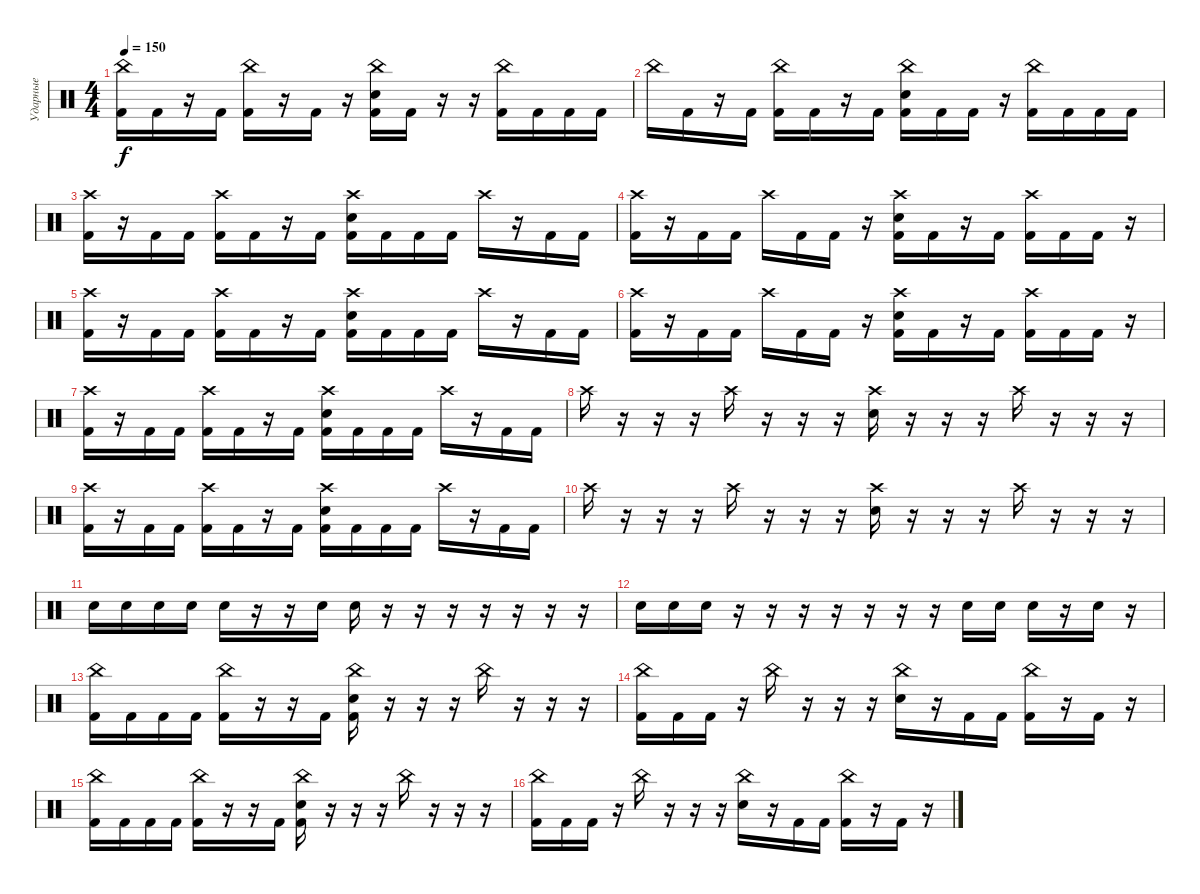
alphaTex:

\track ("Ударные" "Ударные") {instrument percussion}
\staff {score}
\articulation defaults
\ts (4 4)
\tempo 150
\clef neutral
\ks c
("China (hit)" "Kick (hit) 2").16{dy f} "Kick (hit) 2".16 r.16 "Kick (hit) 2".16 ("China (hit)" "Kick (hit) 2").16 r.16 "Kick (hit) 2".16 r.16 ("China (hit)" "Electric Snare (hit)" "Kick (hit) 2").16 "Kick (hit) 2".16 r.16 r.16 ("China (hit)" "Kick (hit) 2").16 "Kick (hit) 2".16 "Kick (hit) 2".16 "Kick (hit) 2".16 |
"China (hit)".16 "Kick (hit) 2".16 r.16 "Kick (hit) 2".16 ("China (hit)" "Kick (hit) 2").16 "Kick (hit) 2".16 r.16 "Kick (hit) 2".16 ("China (hit)" "Electric Snare (hit)" "Kick (hit) 2").16 "Kick (hit) 2".16 "Kick (hit) 2".16 r.16 ("China (hit)" "Kick (hit) 2").16 "Kick (hit) 2".16 "Kick (hit) 2".16 "Kick (hit) 2".16 |
("Crash high (hit)" "Kick (hit) 2").16 r.16 "Kick (hit) 2".16 "Kick (hit) 2".16 ("Crash high (hit)" "Kick (hit) 2").16 "Kick (hit) 2".16 r.16 "Kick (hit) 2".16 ("Crash high (hit)" "Electric Snare (hit)" "Kick (hit) 2").16 "Kick (hit) 2".16 "Kick (hit) 2".16 "Kick (hit) 2".16 "Crash high (hit)".16 r.16 "Kick (hit) 2".16 "Kick (hit) 2".16 |
("Crash high (hit)" "Kick (hit) 2").16 r.16 "Kick (hit) 2".16 "Kick (hit) 2".16 "Crash high (hit)".16 "Kick (hit) 2".16 "Kick (hit) 2".16 r.16 ("Crash high (hit)" "Electric Snare (hit)" "Kick (hit) 2").16 "Kick (hit) 2".16 r.16 "Kick (hit) 2".16 ("Crash high (hit)" "Kick (hit) 2").16 "Kick (hit) 2".16 "Kick (hit) 2".16 r.16 |
("Crash high (hit)" "Kick (hit) 2").16 r.16 "Kick (hit) 2".16 "Kick (hit) 2".16 ("Crash high (hit)" "Kick (hit) 2").16 "Kick (hit) 2".16 r.16 "Kick (hit) 2".16 ("Crash high (hit)" "Electric Snare (hit)" "Kick (hit) 2").16 "Kick (hit) 2".16 "Kick (hit) 2".16 "Kick (hit) 2".16 "Crash high (hit)".16 r.16 "Kick (hit) 2".16 "Kick (hit) 2".16 |
("Crash high (hit)" "Kick (hit) 2").16 r.16 "Kick (hit) 2".16 "Kick (hit) 2".16 "Crash high (hit)".16 "Kick (hit) 2".16 "Kick (hit) 2".16 r.16 ("Crash high (hit)" "Electric Snare (hit)" "Kick (hit) 2").16 "Kick (hit) 2".16 r.16 "Kick (hit) 2".16 ("Crash high (hit)" "Kick (hit) 2").16 "Kick (hit) 2".16 "Kick (hit) 2".16 r.16 |
("Crash high (hit)" "Kick (hit) 2").16 r.16 "Kick (hit) 2".16 "Kick (hit) 2".16 ("Crash high (hit)" "Kick (hit) 2").16 "Kick (hit) 2".16 r.16 "Kick (hit) 2".16 ("Crash high (hit)" "Electric Snare (hit)" "Kick (hit) 2").16 "Kick (hit) 2".16 "Kick (hit) 2".16 "Kick (hit) 2".16 "Crash high (hit)".16 r.16 "Kick (hit) 2".16 "Kick (hit) 2".16 |
"Crash high (hit)".16 r.16 r.16 r.16 "Crash high (hit)".16 r.16 r.16 r.16 ("Crash high (hit)" "Electric Snare (hit)").16 r.16 r.16 r.16 "Crash high (hit)".16 r.16 r.16 r.16 |
("Crash high (hit)" "Kick (hit) 2").16 r.16 "Kick (hit) 2".16 "Kick (hit) 2".16 ("Crash high (hit)" "Kick (hit) 2").16 "Kick (hit) 2".16 r.16 "Kick (hit) 2".16 ("Crash high (hit)" "Electric Snare (hit)" "Kick (hit) 2").16 "Kick (hit) 2".16 "Kick (hit) 2".16 "Kick (hit) 2".16 "Crash high (hit)".16 r.16 "Kick (hit) 2".16 "Kick (hit) 2".16 |
"Crash high (hit)".16 r.16 r.16 r.16 "Crash high (hit)".16 r.16 r.16 r.16 ("Crash high (hit)" "Electric Snare (hit)").16 r.16 r.16 r.16 "Crash high (hit)".16 r.16 r.16 r.16 |
"Electric Snare (hit)".16 "Electric Snare (hit)".16 "Electric Snare (hit)".16 "Electric Snare (hit)".16 "Electric Snare (hit)".16 r.16 r.16 "Electric Snare (hit)".16 "Electric Snare (hit)".16 r.16 r.16 r.16 r.16 r.16 r.16 r.16 |
"Electric Snare (hit)".16 "Electric Snare (hit)".16 "Electric Snare (hit)".16 r.16 r.16 r.16 r.16 r.16 r.16 r.16 "Electric Snare (hit)".16 "Electric Snare (hit)".16 "Electric Snare (hit)".16 r.16 "Electric Snare (hit)".16 r.16 |
("China (hit)" "Kick (hit) 2").16 "Kick (hit) 2".16 "Kick (hit) 2".16 "Kick (hit) 2".16 ("China (hit)" "Kick (hit) 2").16 r.16 r.16 "Kick (hit) 2".16 ("China (hit)" "Electric Snare (hit)" "Kick (hit) 2").16 r.16 r.16 r.16 "China (hit)".16 r.16 r.16 r.16 |
("China (hit)" "Kick (hit) 2").16 "Kick (hit) 2".16 "Kick (hit) 2".16 r.16 "China (hit)".16 r.16 r.16 r.16 ("China (hit)" "Electric Snare (hit)").16 r.16 "Kick (hit) 2".16 "Kick (hit) 2".16 ("China (hit)" "Kick (hit) 2").16 r.16 "Kick (hit) 2".16 r.16 |
("China (hit)" "Kick (hit) 2").16 "Kick (hit) 2".16 "Kick (hit) 2".16 "Kick (hit) 2".16 ("China (hit)" "Kick (hit) 2").16 r.16 r.16 "Kick (hit) 2".16 ("China (hit)" "Electric Snare (hit)" "Kick (hit) 2").16 r.16 r.16 r.16 "China (hit)".16 r.16 r.16 r.16 |
("China (hit)" "Kick (hit) 2").16 "Kick (hit) 2".16 "Kick (hit) 2".16 r.16 "China (hit)".16 r.16 r.16 r.16 ("China (hit)" "Electric Snare (hit)").16 r.16 "Kick (hit) 2".16 "Kick (hit) 2".16 ("China (hit)" "Kick (hit) 2").16 r.16 "Kick (hit) 2".16 r.16
